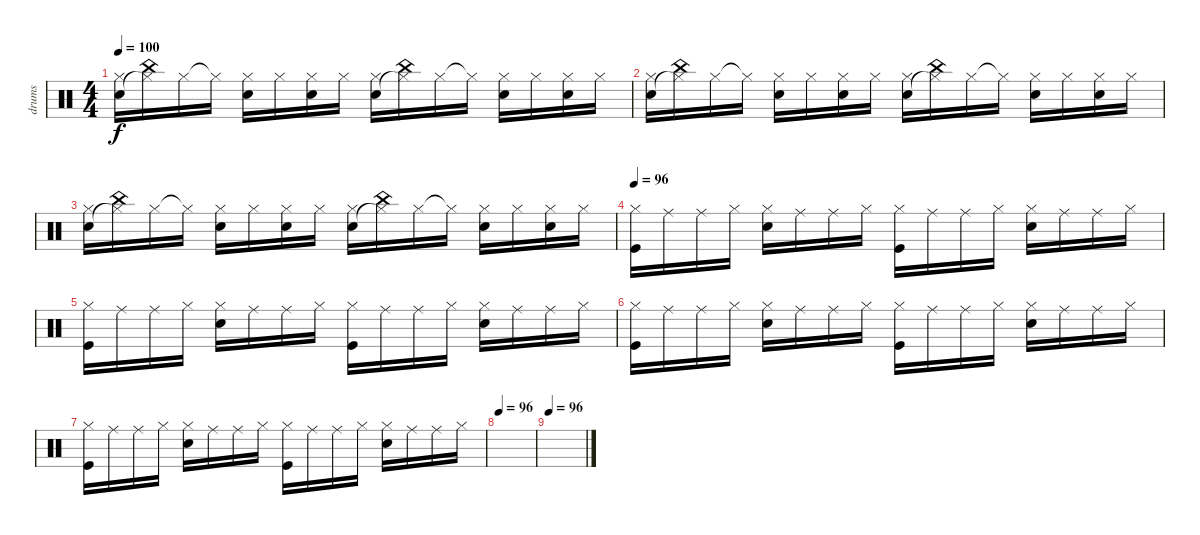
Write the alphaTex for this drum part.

\track ("drums" "drums") {instrument percussion}
\staff {score}
\articulation defaults
\ts (4 4)
\tempo 100
\clef neutral
\ks c
("Hi-Hat (closed)" "Electric Snare (hit)").16{dy f} ("China (hit)" "Hi-Hat (closed)"{t}).16 "Hi-Hat (closed)".16 "Hi-Hat (closed)"{t}.16 ("Hi-Hat (closed)" "Electric Snare (hit)").16 "Hi-Hat (closed)".16 ("Hi-Hat (closed)" "Electric Snare (hit)").16 "Hi-Hat (closed)".16 ("Hi-Hat (closed)" "Electric Snare (hit)").16 ("China (hit)" "Hi-Hat (closed)"{t}).16 "Hi-Hat (closed)".16 "Hi-Hat (closed)"{t}.16 ("Hi-Hat (closed)" "Electric Snare (hit)").16 "Hi-Hat (closed)".16 ("Hi-Hat (closed)" "Electric Snare (hit)").16 "Hi-Hat (closed)".16 |
("Hi-Hat (closed)" "Electric Snare (hit)").16 ("China (hit)" "Hi-Hat (closed)"{t}).16 "Hi-Hat (closed)".16 "Hi-Hat (closed)"{t}.16 ("Hi-Hat (closed)" "Electric Snare (hit)").16 "Hi-Hat (closed)".16 ("Hi-Hat (closed)" "Electric Snare (hit)").16 "Hi-Hat (closed)".16 ("Hi-Hat (closed)" "Electric Snare (hit)").16 ("China (hit)" "Hi-Hat (closed)"{t}).16 "Hi-Hat (closed)".16 "Hi-Hat (closed)"{t}.16 ("Hi-Hat (closed)" "Electric Snare (hit)").16 "Hi-Hat (closed)".16 ("Hi-Hat (closed)" "Electric Snare (hit)").16 "Hi-Hat (closed)".16 |
("Hi-Hat (closed)" "Electric Snare (hit)").16 ("China (hit)" "Hi-Hat (closed)"{t}).16 "Hi-Hat (closed)".16 "Hi-Hat (closed)"{t}.16 ("Hi-Hat (closed)" "Electric Snare (hit)").16 "Hi-Hat (closed)".16 ("Hi-Hat (closed)" "Electric Snare (hit)").16 "Hi-Hat (closed)".16 ("Hi-Hat (closed)" "Electric Snare (hit)").16 ("China (hit)" "Hi-Hat (closed)"{t}).16 "Hi-Hat (closed)".16 "Hi-Hat (closed)"{t}.16 ("Hi-Hat (closed)" "Electric Snare (hit)").16 "Hi-Hat (closed)".16 ("Hi-Hat (closed)" "Electric Snare (hit)").16 "Hi-Hat (closed)".16 |
\tempo 96
("Hi-Hat (closed)" "Kick (hit)").16 "Ride (middle)".16 "Ride (middle)".16 "Hi-Hat (closed)".16 ("Hi-Hat (closed)" "Electric Snare (hit)").16 "Ride (middle)".16 "Ride (middle)".16 "Hi-Hat (closed)".16 ("Hi-Hat (closed)" "Kick (hit)").16 "Ride (middle)".16 "Ride (middle)".16 "Hi-Hat (closed)".16 ("Hi-Hat (closed)" "Electric Snare (hit)").16 "Ride (middle)".16 "Ride (middle)".16 "Hi-Hat (closed)".16 |
("Hi-Hat (closed)" "Kick (hit)").16 "Ride (middle)".16 "Ride (middle)".16 "Hi-Hat (closed)".16 ("Hi-Hat (closed)" "Electric Snare (hit)").16 "Ride (middle)".16 "Ride (middle)".16 "Hi-Hat (closed)".16 ("Hi-Hat (closed)" "Kick (hit)").16 "Ride (middle)".16 "Ride (middle)".16 "Hi-Hat (closed)".16 ("Hi-Hat (closed)" "Electric Snare (hit)").16 "Ride (middle)".16 "Ride (middle)".16 "Hi-Hat (closed)".16 |
("Hi-Hat (closed)" "Kick (hit)").16 "Ride (middle)".16 "Ride (middle)".16 "Hi-Hat (closed)".16 ("Hi-Hat (closed)" "Electric Snare (hit)").16 "Ride (middle)".16 "Ride (middle)".16 "Hi-Hat (closed)".16 ("Hi-Hat (closed)" "Kick (hit)").16 "Ride (middle)".16 "Ride (middle)".16 "Hi-Hat (closed)".16 ("Hi-Hat (closed)" "Electric Snare (hit)").16 "Ride (middle)".16 "Ride (middle)".16 "Hi-Hat (closed)".16 |
("Hi-Hat (closed)" "Kick (hit)").16 "Ride (middle)".16 "Ride (middle)".16 "Hi-Hat (closed)".16 ("Hi-Hat (closed)" "Electric Snare (hit)").16 "Ride (middle)".16 "Ride (middle)".16 "Hi-Hat (closed)".16 ("Hi-Hat (closed)" "Kick (hit)").16 "Ride (middle)".16 "Ride (middle)".16 "Hi-Hat (closed)".16 ("Hi-Hat (closed)" "Electric Snare (hit)").16 "Ride (middle)".16 "Ride (middle)".16 "Hi-Hat (closed)".16 |
\tempo 96
|
\tempo 96
